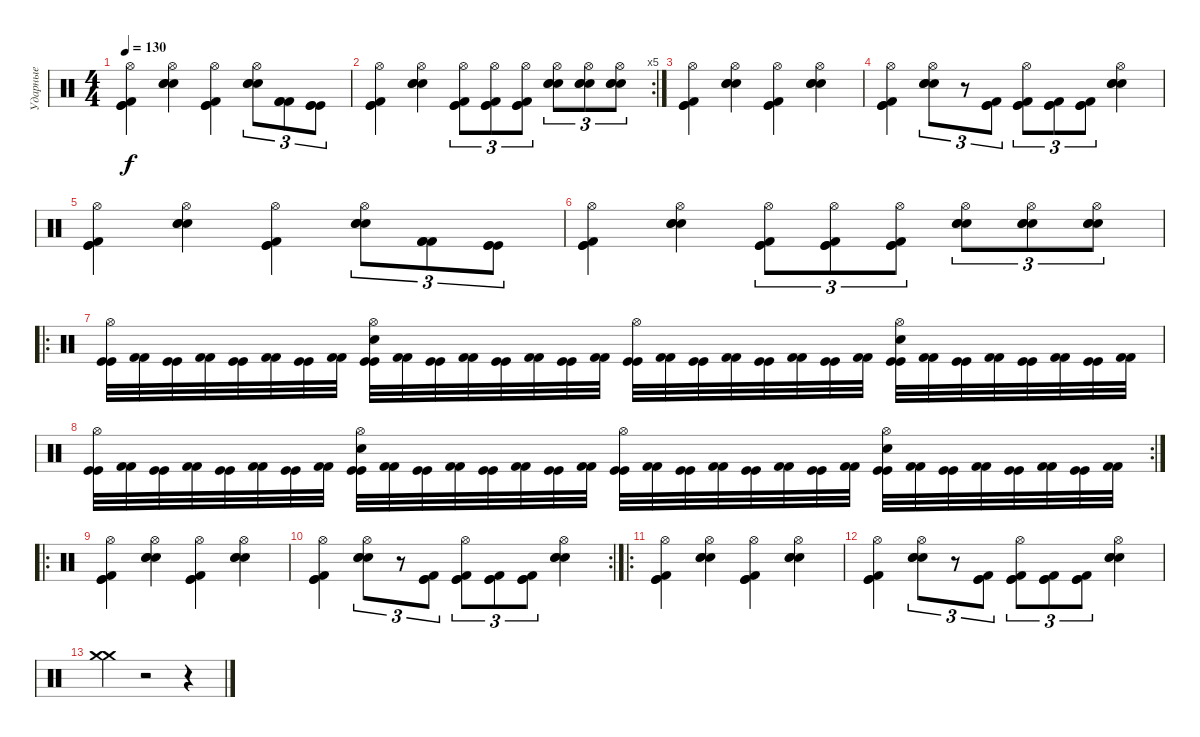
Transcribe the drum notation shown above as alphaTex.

\track ("Ударные" "Ударные") {instrument percussion}
\staff {score}
\articulation defaults
\ts (4 4)
\tempo 130
\clef neutral
\ks c
("Hi-Hat (open)" "Kick (hit) 2" "Kick (hit)" "Kick (hit)").4{dy f} ("Hi-Hat (open)" "Electric Snare (hit)" "Electric Snare (hit)" "Electric Snare (hit)").4 ("Hi-Hat (open)" "Kick (hit) 2" "Kick (hit)" "Kick (hit)").4 ("Hi-Hat (open)" "Electric Snare (hit)" "Electric Snare (hit)" "Electric Snare (hit)").8{tu (3 2)} ("Kick (hit) 2" "Kick (hit) 2" "Kick (hit) 2").8{tu (3 2)} ("Kick (hit)" "Kick (hit)" "Kick (hit)").8{tu (3 2)} |
\rc 5
("Hi-Hat (open)" "Kick (hit) 2" "Kick (hit)" "Kick (hit)").4 ("Hi-Hat (open)" "Electric Snare (hit)" "Electric Snare (hit)" "Electric Snare (hit)").4 ("Hi-Hat (open)" "Kick (hit) 2" "Kick (hit)" "Kick (hit)").8{tu (3 2)} ("Hi-Hat (open)" "Kick (hit) 2" "Kick (hit)" "Kick (hit)").8{tu (3 2)} ("Hi-Hat (open)" "Kick (hit) 2" "Kick (hit)" "Kick (hit)").8{tu (3 2)} ("Hi-Hat (open)" "Electric Snare (hit)" "Electric Snare (hit)" "Electric Snare (hit)").8{tu (3 2)} ("Hi-Hat (open)" "Electric Snare (hit)" "Electric Snare (hit)" "Electric Snare (hit)").8{tu (3 2)} ("Hi-Hat (open)" "Electric Snare (hit)" "Electric Snare (hit)" "Electric Snare (hit)").8{tu (3 2)} |
("Hi-Hat (open)" "Kick (hit) 2" "Kick (hit)" "Kick (hit)").4 ("Hi-Hat (open)" "Electric Snare (hit)" "Electric Snare (hit)" "Electric Snare (hit)").4 ("Hi-Hat (open)" "Kick (hit) 2" "Kick (hit)" "Kick (hit)").4 ("Hi-Hat (open)" "Electric Snare (hit)" "Electric Snare (hit)" "Electric Snare (hit)").4 |
("Hi-Hat (open)" "Kick (hit) 2" "Kick (hit)" "Kick (hit)").4 ("Hi-Hat (open)" "Electric Snare (hit)" "Electric Snare (hit)" "Electric Snare (hit)").8{tu (3 2)} r.8{tu (3 2)} ("Kick (hit) 2" "Kick (hit)" "Kick (hit)").8{tu (3 2)} ("Hi-Hat (open)" "Kick (hit) 2" "Kick (hit)" "Kick (hit)").8{tu (3 2)} ("Kick (hit) 2" "Kick (hit)" "Kick (hit)").8{tu (3 2)} ("Kick (hit) 2" "Kick (hit)" "Kick (hit)").8{tu (3 2)} ("Hi-Hat (open)" "Electric Snare (hit)" "Electric Snare (hit)" "Electric Snare (hit)").4 |
("Hi-Hat (open)" "Kick (hit) 2" "Kick (hit)" "Kick (hit)").4 ("Hi-Hat (open)" "Electric Snare (hit)" "Electric Snare (hit)" "Electric Snare (hit)").4 ("Hi-Hat (open)" "Kick (hit) 2" "Kick (hit)" "Kick (hit)").4 ("Hi-Hat (open)" "Electric Snare (hit)" "Electric Snare (hit)" "Electric Snare (hit)").8{tu (3 2)} ("Kick (hit) 2" "Kick (hit) 2" "Kick (hit) 2").8{tu (3 2)} ("Kick (hit)" "Kick (hit)" "Kick (hit)").8{tu (3 2)} |
("Hi-Hat (open)" "Kick (hit) 2" "Kick (hit)" "Kick (hit)").4 ("Hi-Hat (open)" "Electric Snare (hit)" "Electric Snare (hit)" "Electric Snare (hit)").4 ("Hi-Hat (open)" "Kick (hit) 2" "Kick (hit)" "Kick (hit)").8{tu (3 2)} ("Hi-Hat (open)" "Kick (hit) 2" "Kick (hit)" "Kick (hit)").8{tu (3 2)} ("Hi-Hat (open)" "Kick (hit) 2" "Kick (hit)" "Kick (hit)").8{tu (3 2)} ("Hi-Hat (open)" "Electric Snare (hit)" "Electric Snare (hit)" "Electric Snare (hit)").8{tu (3 2)} ("Hi-Hat (open)" "Electric Snare (hit)" "Electric Snare (hit)" "Electric Snare (hit)").8{tu (3 2)} ("Hi-Hat (open)" "Electric Snare (hit)" "Electric Snare (hit)" "Electric Snare (hit)").8{tu (3 2)} |
\ro
("Hi-Hat (open)" "Kick (hit)" "Kick (hit)").32 ("Kick (hit) 2" "Kick (hit) 2").32 ("Kick (hit)" "Kick (hit)").32 ("Kick (hit) 2" "Kick (hit) 2").32 ("Kick (hit)" "Kick (hit)").32 ("Kick (hit) 2" "Kick (hit) 2").32 ("Kick (hit)" "Kick (hit)").32 ("Kick (hit) 2" "Kick (hit) 2").32 ("Electric Snare (hit)" "Hi-Hat (open)" "Kick (hit)" "Kick (hit)").32 ("Kick (hit) 2" "Kick (hit) 2").32 ("Kick (hit)" "Kick (hit)").32 ("Kick (hit) 2" "Kick (hit) 2").32 ("Kick (hit)" "Kick (hit)").32 ("Kick (hit) 2" "Kick (hit) 2").32 ("Kick (hit)" "Kick (hit)").32 ("Kick (hit) 2" "Kick (hit) 2").32 ("Hi-Hat (open)" "Kick (hit)" "Kick (hit)").32 ("Kick (hit) 2" "Kick (hit) 2").32 ("Kick (hit)" "Kick (hit)").32 ("Kick (hit) 2" "Kick (hit) 2").32 ("Kick (hit)" "Kick (hit)").32 ("Kick (hit) 2" "Kick (hit) 2").32 ("Kick (hit)" "Kick (hit)").32 ("Kick (hit) 2" "Kick (hit) 2").32 ("Electric Snare (hit)" "Hi-Hat (open)" "Kick (hit)" "Kick (hit)").32 ("Kick (hit) 2" "Kick (hit) 2").32 ("Kick (hit)" "Kick (hit)").32 ("Kick (hit) 2" "Kick (hit) 2").32 ("Kick (hit)" "Kick (hit)").32 ("Kick (hit) 2" "Kick (hit) 2").32 ("Kick (hit)" "Kick (hit)").32 ("Kick (hit) 2" "Kick (hit) 2").32 |
\rc 2
("Hi-Hat (open)" "Kick (hit)" "Kick (hit)").32 ("Kick (hit) 2" "Kick (hit) 2").32 ("Kick (hit)" "Kick (hit)").32 ("Kick (hit) 2" "Kick (hit) 2").32 ("Kick (hit)" "Kick (hit)").32 ("Kick (hit) 2" "Kick (hit) 2").32 ("Kick (hit)" "Kick (hit)").32 ("Kick (hit) 2" "Kick (hit) 2").32 ("Electric Snare (hit)" "Hi-Hat (open)" "Kick (hit)" "Kick (hit)").32 ("Kick (hit) 2" "Kick (hit) 2").32 ("Kick (hit)" "Kick (hit)").32 ("Kick (hit) 2" "Kick (hit) 2").32 ("Kick (hit)" "Kick (hit)").32 ("Kick (hit) 2" "Kick (hit) 2").32 ("Kick (hit)" "Kick (hit)").32 ("Kick (hit) 2" "Kick (hit) 2").32 ("Hi-Hat (open)" "Kick (hit)" "Kick (hit)").32 ("Kick (hit) 2" "Kick (hit) 2").32 ("Kick (hit)" "Kick (hit)").32 ("Kick (hit) 2" "Kick (hit) 2").32 ("Kick (hit)" "Kick (hit)").32 ("Kick (hit) 2" "Kick (hit) 2").32 ("Kick (hit)" "Kick (hit)").32 ("Kick (hit) 2" "Kick (hit) 2").32 ("Electric Snare (hit)" "Hi-Hat (open)" "Kick (hit)" "Kick (hit)").32 ("Kick (hit) 2" "Kick (hit) 2").32 ("Kick (hit)" "Kick (hit)").32 ("Kick (hit) 2" "Kick (hit) 2").32 ("Kick (hit)" "Kick (hit)").32 ("Kick (hit) 2" "Kick (hit) 2").32 ("Kick (hit)" "Kick (hit)").32 ("Kick (hit) 2" "Kick (hit) 2").32 |
\ro
("Hi-Hat (open)" "Kick (hit) 2" "Kick (hit)" "Kick (hit)").4 ("Hi-Hat (open)" "Electric Snare (hit)" "Electric Snare (hit)" "Electric Snare (hit)").4 ("Hi-Hat (open)" "Kick (hit) 2" "Kick (hit)" "Kick (hit)").4 ("Hi-Hat (open)" "Electric Snare (hit)" "Electric Snare (hit)" "Electric Snare (hit)").4 |
\rc 2
("Hi-Hat (open)" "Kick (hit) 2" "Kick (hit)" "Kick (hit)").4 ("Hi-Hat (open)" "Electric Snare (hit)" "Electric Snare (hit)" "Electric Snare (hit)").8{tu (3 2)} r.8{tu (3 2)} ("Kick (hit) 2" "Kick (hit)" "Kick (hit)").8{tu (3 2)} ("Hi-Hat (open)" "Kick (hit) 2" "Kick (hit)" "Kick (hit)").8{tu (3 2)} ("Kick (hit) 2" "Kick (hit)" "Kick (hit)").8{tu (3 2)} ("Kick (hit) 2" "Kick (hit)" "Kick (hit)").8{tu (3 2)} ("Hi-Hat (open)" "Electric Snare (hit)" "Electric Snare (hit)" "Electric Snare (hit)").4 |
\ro
("Hi-Hat (open)" "Kick (hit) 2" "Kick (hit)" "Kick (hit)").4 ("Hi-Hat (open)" "Electric Snare (hit)" "Electric Snare (hit)" "Electric Snare (hit)").4 ("Hi-Hat (open)" "Kick (hit) 2" "Kick (hit)" "Kick (hit)").4 ("Hi-Hat (open)" "Electric Snare (hit)" "Electric Snare (hit)" "Electric Snare (hit)").4 |
("Hi-Hat (open)" "Kick (hit) 2" "Kick (hit)" "Kick (hit)").4 ("Hi-Hat (open)" "Electric Snare (hit)" "Electric Snare (hit)" "Electric Snare (hit)").8{tu (3 2)} r.8{tu (3 2)} ("Kick (hit) 2" "Kick (hit)" "Kick (hit)").8{tu (3 2)} ("Hi-Hat (open)" "Kick (hit) 2" "Kick (hit)" "Kick (hit)").8{tu (3 2)} ("Kick (hit) 2" "Kick (hit)" "Kick (hit)").8{tu (3 2)} ("Kick (hit) 2" "Kick (hit)" "Kick (hit)").8{tu (3 2)} ("Hi-Hat (open)" "Electric Snare (hit)" "Electric Snare (hit)" "Electric Snare (hit)").4 |
("Crash medium (hit)" "Crash medium (hit)").4 r.2 r.4
